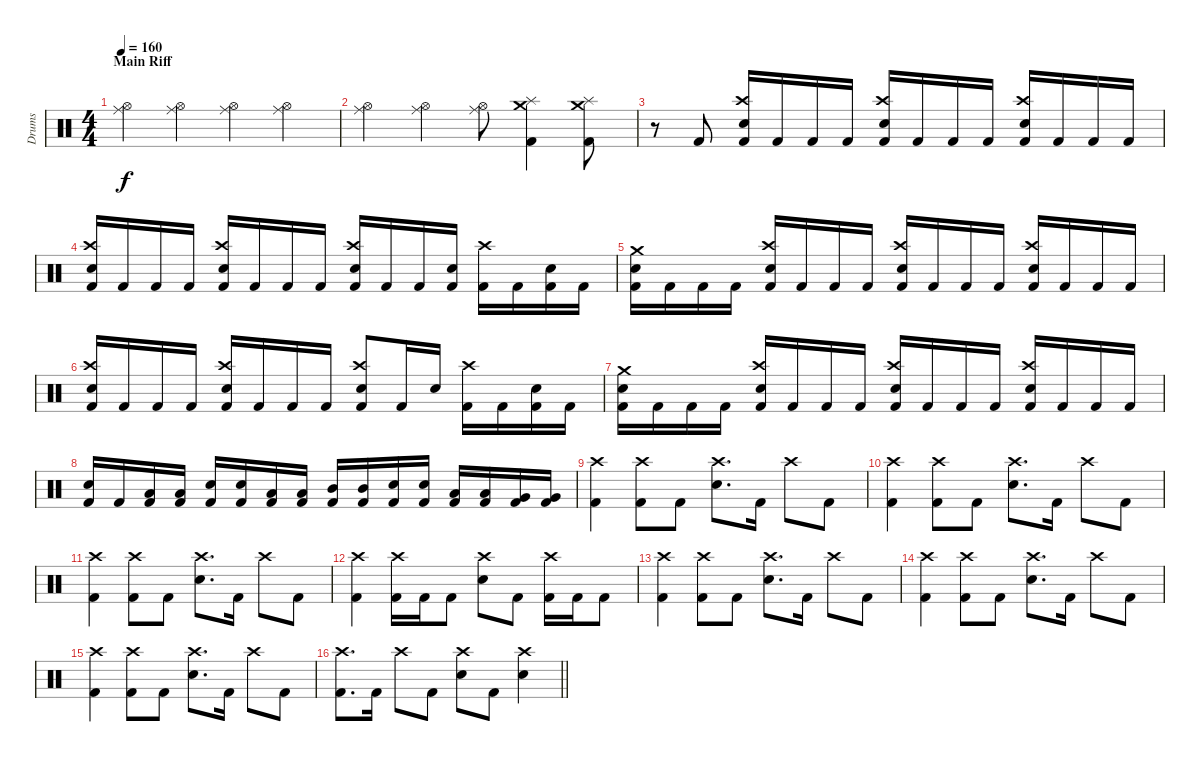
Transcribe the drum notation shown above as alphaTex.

\track ("Drums" "Drums") {instrument percussion}
\staff {score}
\articulation defaults
\ts (4 4)
\section ("" "Main Riff")
\tempo 160
\clef neutral
\ks c
("Ride (middle)" "Hi-Hat (open)").4{dy f} ("Ride (middle)" "Hi-Hat (open)").4 ("Ride (middle)" "Hi-Hat (open)").4 ("Ride (middle)" "Hi-Hat (open)").4 |
("Ride (middle)" "Hi-Hat (open)").4 ("Ride (middle)" "Hi-Hat (open)").4 ("Ride (middle)" "Hi-Hat (open)").8 ("Crash medium (hit)" "Splash (hit)" "Kick (hit) 2").4 ("Crash medium (hit)" "Splash (hit)" "Kick (hit) 2").8 |
r.8 "Kick (hit) 2".8 ("Crash high (hit)" "Electric Snare (hit)" "Kick (hit) 2").16 "Kick (hit) 2".16 "Kick (hit) 2".16 "Kick (hit) 2".16 ("Crash high (hit)" "Electric Snare (hit)" "Kick (hit) 2").16 "Kick (hit) 2".16 "Kick (hit) 2".16 "Kick (hit) 2".16 ("Crash high (hit)" "Electric Snare (hit)" "Kick (hit) 2").16 "Kick (hit) 2".16 "Kick (hit) 2".16 "Kick (hit) 2".16 |
("Crash high (hit)" "Electric Snare (hit)" "Kick (hit) 2").16 "Kick (hit) 2".16 "Kick (hit) 2".16 "Kick (hit) 2".16 ("Crash high (hit)" "Electric Snare (hit)" "Kick (hit) 2").16 "Kick (hit) 2".16 "Kick (hit) 2".16 "Kick (hit) 2".16 ("Crash high (hit)" "Electric Snare (hit)" "Kick (hit) 2").16 "Kick (hit) 2".16 "Kick (hit) 2".16 ("Electric Snare (hit)" "Kick (hit) 2").16 ("Crash high (hit)" "Kick (hit) 2").16 "Kick (hit) 2".16 ("Electric Snare (hit)" "Kick (hit) 2").16 "Kick (hit) 2".16 |
("Crash medium (hit)" "Electric Snare (hit)" "Kick (hit) 2").16 "Kick (hit) 2".16 "Kick (hit) 2".16 "Kick (hit) 2".16 ("Crash high (hit)" "Electric Snare (hit)" "Kick (hit) 2").16 "Kick (hit) 2".16 "Kick (hit) 2".16 "Kick (hit) 2".16 ("Crash high (hit)" "Electric Snare (hit)" "Kick (hit) 2").16 "Kick (hit) 2".16 "Kick (hit) 2".16 "Kick (hit) 2".16 ("Crash high (hit)" "Electric Snare (hit)" "Kick (hit) 2").16 "Kick (hit) 2".16 "Kick (hit) 2".16 "Kick (hit) 2".16 |
("Crash high (hit)" "Electric Snare (hit)" "Kick (hit) 2").16 "Kick (hit) 2".16 "Kick (hit) 2".16 "Kick (hit) 2".16 ("Crash high (hit)" "Electric Snare (hit)" "Kick (hit) 2").16 "Kick (hit) 2".16 "Kick (hit) 2".16 "Kick (hit) 2".16 ("Crash high (hit)" "Electric Snare (hit)" "Kick (hit) 2").8 "Kick (hit) 2".16 "Electric Snare (hit)".16 ("Crash high (hit)" "Kick (hit) 2").16 "Kick (hit) 2".16 ("Electric Snare (hit)" "Kick (hit) 2").16 "Kick (hit) 2".16 |
("Crash medium (hit)" "Electric Snare (hit)" "Kick (hit) 2").16 "Kick (hit) 2".16 "Kick (hit) 2".16 "Kick (hit) 2".16 ("Crash high (hit)" "Electric Snare (hit)" "Kick (hit) 2").16 "Kick (hit) 2".16 "Kick (hit) 2".16 "Kick (hit) 2".16 ("Crash high (hit)" "Electric Snare (hit)" "Kick (hit) 2").16 "Kick (hit) 2".16 "Kick (hit) 2".16 "Kick (hit) 2".16 ("Crash high (hit)" "Electric Snare (hit)" "Kick (hit) 2").16 "Kick (hit) 2".16 "Kick (hit) 2".16 "Kick (hit) 2".16 |
("Electric Snare (hit)" "Kick (hit) 2").16 "Kick (hit) 2".16 ("Low Floor Tom (hit)" "Kick (hit) 2").16 ("Low Floor Tom (hit)" "Kick (hit) 2").16 ("Electric Snare (hit)" "Kick (hit) 2").16 ("Electric Snare (hit)" "Kick (hit) 2").16 ("Low Tom (hit)" "Kick (hit) 2").16 ("Low Tom (hit)" "Kick (hit) 2").16 ("Mid Tom (hit)" "Kick (hit) 2").16 ("Mid Tom (hit)" "Kick (hit) 2").16 ("Electric Snare (hit)" "Kick (hit) 2").16 ("Electric Snare (hit)" "Kick (hit) 2").16 ("Low Tom (hit)" "Kick (hit) 2").16 ("Low Tom (hit)" "Kick (hit) 2").16 ("Very Low Tom (hit)" "Kick (hit) 2").16 ("Very Low Tom (hit)" "Kick (hit) 2").16 |
("Crash high (hit)" "Kick (hit) 2").4 ("Crash high (hit)" "Kick (hit) 2").8 "Kick (hit) 2".8 ("Crash high (hit)" "Electric Snare (hit)").8{d} "Kick (hit) 2".16 "Crash high (hit)".8 "Kick (hit) 2".8 |
("Crash high (hit)" "Kick (hit) 2").4 ("Crash high (hit)" "Kick (hit) 2").8 "Kick (hit) 2".8 ("Crash high (hit)" "Electric Snare (hit)").8{d} "Kick (hit) 2".16 "Crash high (hit)".8 "Kick (hit) 2".8 |
("Crash high (hit)" "Kick (hit) 2").4 ("Crash high (hit)" "Kick (hit) 2").8 "Kick (hit) 2".8 ("Crash high (hit)" "Electric Snare (hit)").8{d} "Kick (hit) 2".16 "Crash high (hit)".8 "Kick (hit) 2".8 |
("Crash high (hit)" "Kick (hit) 2").4 ("Crash high (hit)" "Kick (hit) 2").16 "Kick (hit) 2".16 "Kick (hit) 2".8 ("Crash high (hit)" "Electric Snare (hit)").8 "Kick (hit) 2".8 ("Crash high (hit)" "Kick (hit) 2").16 "Kick (hit) 2".16 "Kick (hit) 2".8 |
("Crash high (hit)" "Kick (hit) 2").4 ("Crash high (hit)" "Kick (hit) 2").8 "Kick (hit) 2".8 ("Crash high (hit)" "Electric Snare (hit)").8{d} "Kick (hit) 2".16 "Crash high (hit)".8 "Kick (hit) 2".8 |
("Crash high (hit)" "Kick (hit) 2").4 ("Crash high (hit)" "Kick (hit) 2").8 "Kick (hit) 2".8 ("Crash high (hit)" "Electric Snare (hit)").8{d} "Kick (hit) 2".16 "Crash high (hit)".8 "Kick (hit) 2".8 |
("Crash high (hit)" "Kick (hit) 2").4 ("Crash high (hit)" "Kick (hit) 2").8 "Kick (hit) 2".8 ("Crash high (hit)" "Electric Snare (hit)").8{d} "Kick (hit) 2".16 "Crash high (hit)".8 "Kick (hit) 2".8 |
\barLineRight lightlight
("Crash high (hit)" "Kick (hit) 2").8{d} "Kick (hit) 2".16 "Crash high (hit)".8 "Kick (hit) 2".8 ("Crash high (hit)" "Electric Snare (hit)").8 "Kick (hit) 2".8 ("Crash high (hit)" "Electric Snare (hit)").4
